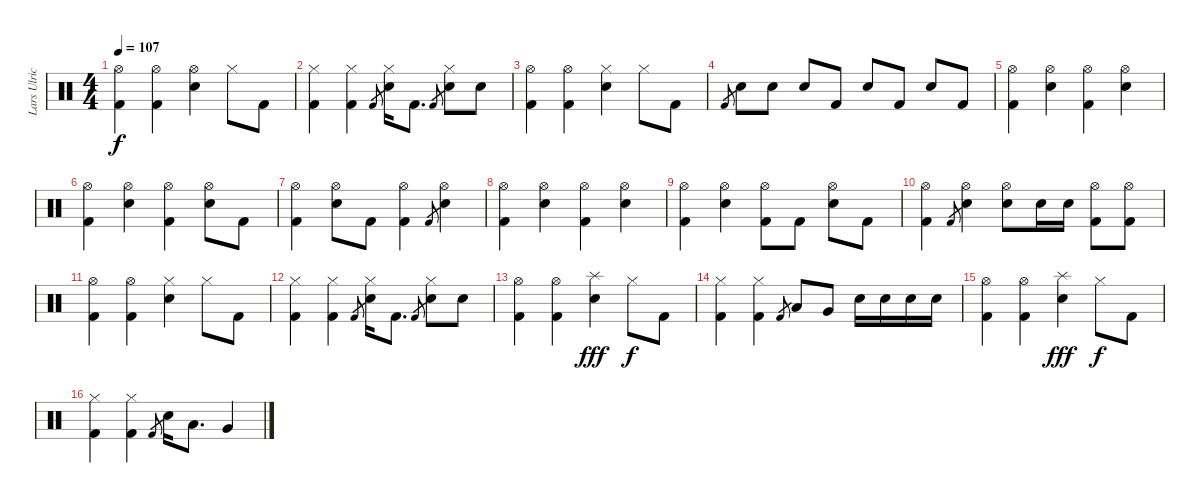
\track ("Lars Ulrich" "Lars Ulric") {instrument percussion}
\staff {score}
\articulation defaults
\ts (4 4)
\tempo 107
\clef neutral
\ks c
("Hi-Hat (open)" "Kick (hit) 2").4{dy f} ("Hi-Hat (open)" "Kick (hit) 2").4 ("Hi-Hat (open)" "Electric Snare (hit)").4 "Hi-Hat (closed)".8 "Kick (hit) 2".8 |
("Hi-Hat (closed)" "Kick (hit) 2").4 ("Hi-Hat (closed)" "Kick (hit) 2").4 "Kick (hit) 2".8{gr} ("Hi-Hat (closed)" "Electric Snare (hit)").16 "Kick (hit) 2".8{d} "Kick (hit) 2".8{gr} ("Hi-Hat (closed)" "Electric Snare (hit)").8 "Electric Snare (hit)".8 |
("Hi-Hat (open)" "Kick (hit) 2").4 ("Hi-Hat (open)" "Kick (hit) 2").4 ("Hi-Hat (closed)" "Electric Snare (hit)").4 "Hi-Hat (closed)".8 "Kick (hit) 2".8 |
"Kick (hit) 2".8{gr} "Electric Snare (hit)".8 "Electric Snare (hit)".8 "Electric Snare (hit)".8 "Kick (hit) 2".8 "Electric Snare (hit)".8 "Kick (hit) 2".8 "Electric Snare (hit)".8 "Kick (hit) 2".8 |
("Hi-Hat (open)" "Kick (hit) 2").4 ("Hi-Hat (open)" "Electric Snare (hit)").4 ("Hi-Hat (open)" "Kick (hit) 2").4 ("Hi-Hat (open)" "Electric Snare (hit)").4 |
("Hi-Hat (open)" "Kick (hit) 2").4 ("Hi-Hat (open)" "Electric Snare (hit)").4 ("Hi-Hat (open)" "Kick (hit) 2").4 ("Hi-Hat (open)" "Electric Snare (hit)").8 "Kick (hit) 2".8 |
("Hi-Hat (open)" "Kick (hit) 2").4 ("Hi-Hat (open)" "Electric Snare (hit)").8 "Kick (hit) 2".8 ("Hi-Hat (open)" "Kick (hit) 2").4 "Kick (hit) 2".8{gr} ("Hi-Hat (open)" "Electric Snare (hit)").4 |
("Hi-Hat (open)" "Kick (hit) 2").4 ("Hi-Hat (open)" "Electric Snare (hit)").4 ("Hi-Hat (open)" "Kick (hit) 2").4 ("Hi-Hat (open)" "Electric Snare (hit)").4 |
("Hi-Hat (open)" "Kick (hit) 2").4 ("Hi-Hat (open)" "Electric Snare (hit)").4 ("Hi-Hat (open)" "Kick (hit) 2").8 "Kick (hit) 2".8 ("Hi-Hat (open)" "Electric Snare (hit)").8 "Kick (hit) 2".8 |
("Hi-Hat (open)" "Kick (hit) 2").4 "Kick (hit) 2".8{gr} ("Hi-Hat (open)" "Electric Snare (hit)").4 ("Hi-Hat (open)" "Electric Snare (hit)").8 "Electric Snare (hit)".16 "Electric Snare (hit)".16 ("Hi-Hat (open)" "Kick (hit) 2").8 ("Hi-Hat (open)" "Kick (hit) 2").8 |
("Hi-Hat (open)" "Kick (hit) 2").4 ("Hi-Hat (open)" "Kick (hit) 2").4 ("Hi-Hat (closed)" "Electric Snare (hit)").4 "Hi-Hat (closed)".8 "Kick (hit) 2".8 |
("Hi-Hat (closed)" "Kick (hit) 2").4 ("Hi-Hat (closed)" "Kick (hit) 2").4 "Kick (hit) 2".8{gr} ("Hi-Hat (closed)" "Electric Snare (hit)").16 "Kick (hit) 2".8{d} "Kick (hit) 2".8{gr} ("Hi-Hat (closed)" "Electric Snare (hit)").8 "Electric Snare (hit)".8 |
("Hi-Hat (open)" "Kick (hit) 2").4 ("Hi-Hat (open)" "Kick (hit) 2").4 ("Splash (hit)" "Electric Snare (hit)").4{dy fff} "Hi-Hat (closed)".8{dy f} "Kick (hit) 2".8 |
("Hi-Hat (closed)" "Kick (hit) 2").4 ("Hi-Hat (closed)" "Kick (hit) 2").4 "Kick (hit) 2".8{gr} "Low Tom (hit)".8 "Very Low Tom (hit)".8 "Electric Snare (hit)".16 "Electric Snare (hit)".16 "Electric Snare (hit)".16 "Electric Snare (hit)".16 |
("Hi-Hat (open)" "Kick (hit) 2").4 ("Hi-Hat (open)" "Kick (hit) 2").4 ("Splash (hit)" "Electric Snare (hit)").4{dy fff} "Hi-Hat (closed)".8{dy f} "Kick (hit) 2".8 |
("Hi-Hat (closed)" "Kick (hit) 2").4 ("Hi-Hat (closed)" "Kick (hit) 2").4 "Kick (hit) 2".8{gr} "Electric Snare (hit)".16 "Low Tom (hit)".8{d} "Very Low Tom (hit)".4
